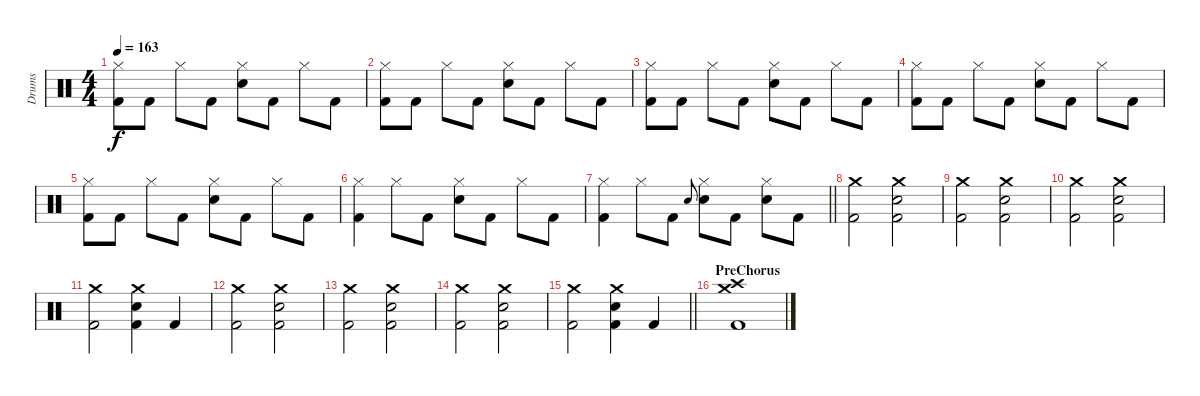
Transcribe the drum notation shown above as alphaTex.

\track ("Drums" "Drums") {instrument percussion}
\staff {score}
\articulation defaults
\ts (4 4)
\tempo 163
\clef neutral
\ks c
("Hi-Hat (closed)" "Kick (hit) 2").8{dy f} "Kick (hit) 2".8 "Hi-Hat (closed)".8 "Kick (hit) 2".8 ("Hi-Hat (closed)" "Snare (hit) 2").8 "Kick (hit) 2".8 "Hi-Hat (closed)".8 "Kick (hit) 2".8 |
("Hi-Hat (closed)" "Kick (hit) 2").8 "Kick (hit) 2".8 "Hi-Hat (closed)".8 "Kick (hit) 2".8 ("Hi-Hat (closed)" "Snare (hit) 2").8 "Kick (hit) 2".8 "Hi-Hat (closed)".8 "Kick (hit) 2".8 |
("Hi-Hat (closed)" "Kick (hit) 2").8 "Kick (hit) 2".8 "Hi-Hat (closed)".8 "Kick (hit) 2".8 ("Hi-Hat (closed)" "Snare (hit) 2").8 "Kick (hit) 2".8 "Hi-Hat (closed)".8 "Kick (hit) 2".8 |
("Hi-Hat (closed)" "Kick (hit) 2").8 "Kick (hit) 2".8 "Hi-Hat (closed)".8 "Kick (hit) 2".8 ("Hi-Hat (closed)" "Snare (hit) 2").8 "Kick (hit) 2".8 "Hi-Hat (closed)".8 "Kick (hit) 2".8 |
("Hi-Hat (closed)" "Kick (hit) 2").8 "Kick (hit) 2".8 "Hi-Hat (closed)".8 "Kick (hit) 2".8 ("Hi-Hat (closed)" "Snare (hit) 2").8 "Kick (hit) 2".8 "Hi-Hat (closed)".8 "Kick (hit) 2".8 |
("Hi-Hat (closed)" "Kick (hit) 2").4 "Hi-Hat (closed)".8 "Kick (hit) 2".8 ("Hi-Hat (closed)" "Snare (hit) 2").8 "Kick (hit) 2".8 "Hi-Hat (closed)".8 "Kick (hit) 2".8 |
\barLineRight lightlight
("Hi-Hat (closed)" "Kick (hit) 2").4 "Hi-Hat (closed)".8 "Kick (hit) 2".8 "Snare (hit) 2".8{gr onbeat} ("Hi-Hat (closed)" "Snare (hit) 2").8 "Kick (hit) 2".8 ("Hi-Hat (closed)" "Snare (hit) 2").8 "Kick (hit) 2".8 |
("Crash medium (hit)" "Kick (hit) 2").2 ("Crash medium (hit)" "Snare (hit) 2" "Kick (hit) 2").2 |
("Crash medium (hit)" "Kick (hit) 2").2 ("Crash medium (hit)" "Snare (hit) 2" "Kick (hit) 2").2 |
("Crash medium (hit)" "Kick (hit) 2").2 ("Crash medium (hit)" "Snare (hit) 2" "Kick (hit) 2").2 |
("Crash medium (hit)" "Kick (hit) 2").2 ("Crash medium (hit)" "Snare (hit) 2" "Kick (hit) 2").4 "Kick (hit) 2".4 |
("Crash medium (hit)" "Kick (hit) 2").2 ("Crash medium (hit)" "Snare (hit) 2" "Kick (hit) 2").2 |
("Crash medium (hit)" "Kick (hit) 2").2 ("Crash medium (hit)" "Snare (hit) 2" "Kick (hit) 2").2 |
("Crash medium (hit)" "Kick (hit) 2").2 ("Crash medium (hit)" "Snare (hit) 2" "Kick (hit) 2").2 |
\barLineRight lightlight
("Crash medium (hit)" "Kick (hit) 2").2 ("Crash medium (hit)" "Snare (hit) 2" "Kick (hit) 2").4 "Kick (hit) 2".4 |
\section ("" "PreChorus")
("Crash high (hit)" "Crash medium (hit)" "Kick (hit) 2").1
